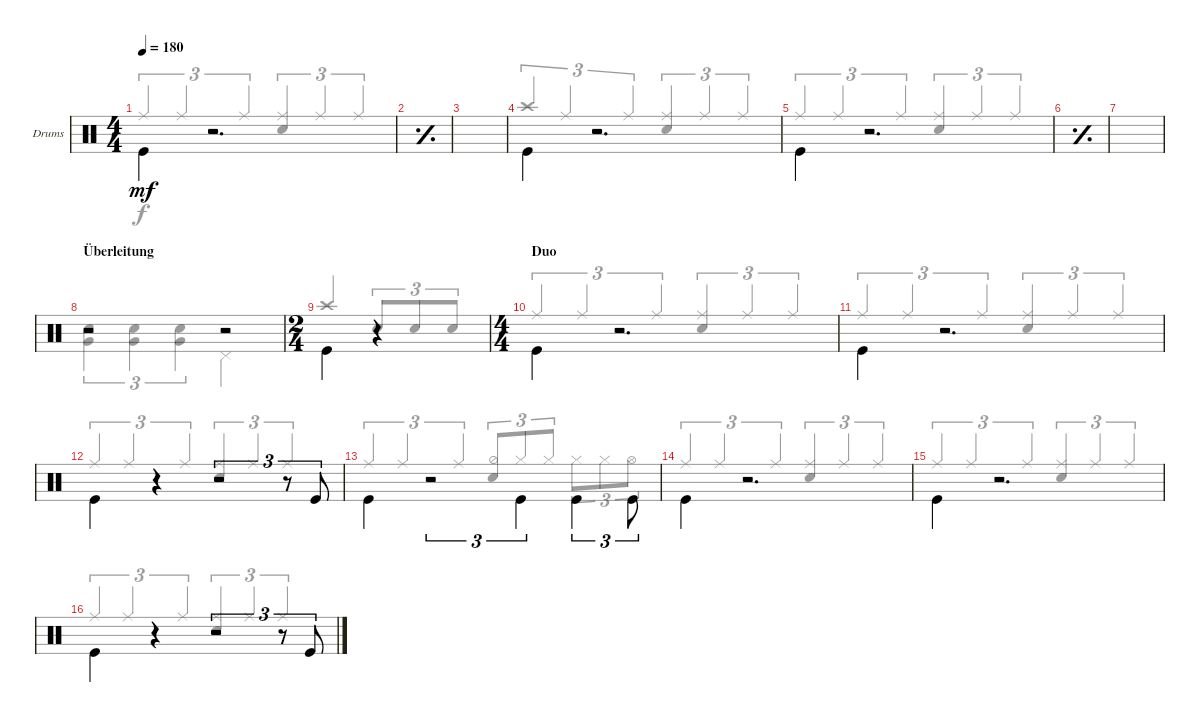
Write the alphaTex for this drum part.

\defaultSystemsLayout 4
\bracketExtendMode groupsimilarinstruments
\multiBarRest
\firstSystemTrackNameOrientation horizontal
\otherSystemsTrackNameOrientation horizontal
\track ("Drumkit" "Drums") {instrument percussion}
\staff {score}
\articulation defaults
\voice
\ts (4 4)
\tempo 180
\clef neutral
\ks c "Kick (hit)".4{dy mf beam invert}
r.2{d} |
\simile simple
|
|
\simile none "Kick (hit)".4{beam invert}
r.2{d} |
"Kick (hit)".4{beam invert} r.2{d} |
\simile simple
|
|
\section ("" "Überleitung")
\simile none
r.2 r.2 |
\ts (2 4)
"Kick (hit)".4{beam invert} r.4 |
\ts (4 4)
\section ("" "Duo")
"Kick (hit)".4{beam invert} r.2{d} |
"Kick (hit)".4{beam invert} r.2{d} |
"Kick (hit)".4{beam invert} r.4 r.2{tu (3 2)} r.8{tu (3 2)} "Kick (hit)".8{tu (3 2)} |
"Kick (hit)".4{beam invert} r.2{tu (3 2)} "Kick (hit)".4{tu (3 2) beam invert} "Kick (hit)".4{tu (3 2) beam invert} "Kick (hit)".8{tu (3 2) beam invert} |
"Kick (hit)".4{beam invert} r.2{d} |
"Kick (hit)".4{beam invert} r.2{d} |
"Kick (hit)".4{beam invert} r.4 r.2{tu (3 2)} r.8{tu (3 2)} "Kick (hit)".8{tu (3 2)}
\voice
\clef neutral
\ottava regular
\simile none
\ks c "Ride (middle)".4{tu (3 2) dy f beam invert} "Ride (middle)".4{tu (3 2) beam invert} "Ride (middle)".4{tu (3 2) beam invert}
("Ride (middle)" "Snare (hit) 2").4{tu (3 2) beam invert} "Ride (middle)".4{tu (3 2) beam invert} "Ride (middle)".4{tu (3 2) beam invert} |
\simile simple
|
|
\simile none "Crash high (hit)".4{tu (3 2) beam invert} "Ride (middle)".4{tu (3 2) beam invert} "Ride (middle)".4{tu (3 2) beam invert}
("Ride (middle)" "Snare (hit) 2").4{tu (3 2) beam invert} "Ride (middle)".4{tu (3 2) beam invert} "Ride (middle)".4{tu (3 2) beam invert} |
"Ride (middle)".4{tu (3 2) beam invert} "Ride (middle)".4{tu (3 2) beam invert} "Ride (middle)".4{tu (3 2) beam invert} ("Ride (middle)" "Snare (hit) 2").4{tu (3 2) beam invert} "Ride (middle)".4{tu (3 2) beam invert} "Ride (middle)".4{tu (3 2) beam invert} |
\simile simple
|
|
\simile none
("Very Low Tom (hit)" "Snare (hit) 2").4{tu (3 2)} ("Very Low Tom (hit)" "Snare (hit) 2").4{tu (3 2)} ("Very Low Tom (hit)" "Snare (hit) 2").4{tu (3 2)} "Pedal Hi-Hat (hit)".2 |
"Crash high (hit)".4{beam invert} "Snare (hit) 2".8{tu (3 2) beam invert} "Snare (hit) 2".8{tu (3 2) beam invert} "Snare (hit) 2".8{tu (3 2) beam invert} |
"Ride (middle)".4{tu (3 2) beam invert} "Ride (middle)".4{tu (3 2) beam invert} "Ride (middle)".4{tu (3 2) beam invert} ("Ride (middle)" "Snare (hit) 2").4{tu (3 2) beam invert} "Ride (middle)".4{tu (3 2) beam invert} "Ride (middle)".4{tu (3 2) beam invert} |
"Ride (middle)".4{tu (3 2) beam invert} "Ride (middle)".4{tu (3 2) beam invert} "Ride (middle)".4{tu (3 2) beam invert} ("Ride (middle)" "Snare (hit) 2").4{tu (3 2) beam invert} "Ride (middle)".4{tu (3 2) beam invert} "Ride (middle)".4{tu (3 2) beam invert} |
"Ride (middle)".4{tu (3 2) beam invert} "Ride (middle)".4{tu (3 2) beam invert} "Ride (middle)".4{tu (3 2) beam invert} ("Ride (middle)" "Snare (hit) 2").4{tu (3 2) beam invert} "Ride (middle)".4{tu (3 2) beam invert} "Ride (middle)".4{tu (3 2) beam invert} |
"Ride (middle)".4{tu (3 2) beam invert} "Ride (middle)".4{tu (3 2) beam invert} "Ride (middle)".4{tu (3 2) beam invert} ("Snare (hit) 2" "Hi-Hat (half)").8{tu (3 2) beam invert} "Hi-Hat (closed)".8{tu (3 2) beam invert} "Hi-Hat (closed)".8{tu (3 2) beam invert} "Hi-Hat (closed)".8{tu (3 2)} "Hi-Hat (closed)".8{tu (3 2)} "Hi-Hat (open)".8{tu (3 2)} |
"Ride (middle)".4{tu (3 2) beam invert} "Ride (middle)".4{tu (3 2) beam invert} "Ride (middle)".4{tu (3 2) beam invert} ("Ride (middle)" "Snare (hit) 2").4{tu (3 2) beam invert} "Ride (middle)".4{tu (3 2) beam invert} "Ride (middle)".4{tu (3 2) beam invert} |
"Ride (middle)".4{tu (3 2) beam invert} "Ride (middle)".4{tu (3 2) beam invert} "Ride (middle)".4{tu (3 2) beam invert} ("Ride (middle)" "Snare (hit) 2").4{tu (3 2) beam invert} "Ride (middle)".4{tu (3 2) beam invert} "Ride (middle)".4{tu (3 2) beam invert} |
"Ride (middle)".4{tu (3 2) beam invert} "Ride (middle)".4{tu (3 2) beam invert} "Ride (middle)".4{tu (3 2) beam invert} ("Ride (middle)" "Snare (hit) 2").4{tu (3 2) beam invert} "Ride (middle)".4{tu (3 2) beam invert} "Ride (middle)".4{tu (3 2) beam invert}
